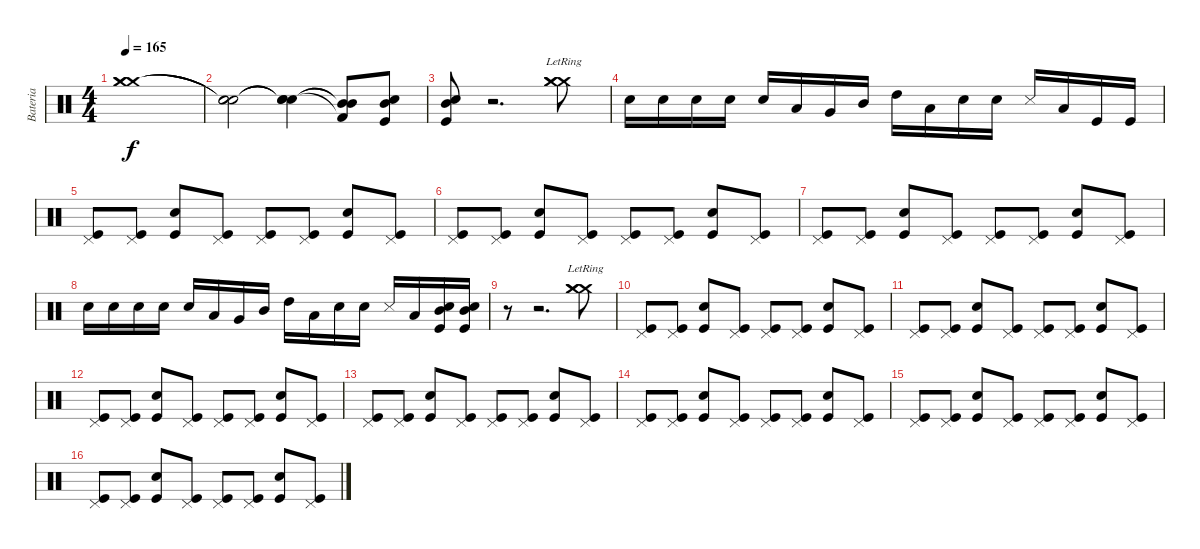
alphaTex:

\track ("Bateria" "Bateria") {instrument percussion}
\staff {score}
\articulation defaults
\ts (4 4)
\tempo 165
\clef neutral
\ks c
("Crash medium (hit)" "Crash medium (hit)" "Crash medium (hit)").1{dy f} |
("Snare (hit)"{t} "Snare (hit)"{t} "Snare (hit)"{t}).2 ("Snare (hit)"{t} "Snare (hit)"{t} "Snare (hit)"{t}).4 ("Mid Tom (hit)"{t} "Mid Tom (hit)"{t} "Kick (hit) 2"{t}).8 ("Mid Tom (hit)" "Metronome (bell)" "Kick (hit)").8 |
("Mid Tom (hit)" "Metronome (bell)" "Kick (hit)").8 r.2{d} ("Crash medium (hit)"{lr} "Crash medium (hit)"{lr} "Crash medium (hit)"{lr}).8 |
"Metronome (bell)".16 "Metronome (bell)".16 "Metronome (bell)".16 "Snare (hit) 2".16 "Snare (hit) 2".16 "Low Floor Tom (hit)".16 "Very Low Tom (hit)".16 "Mid Tom (hit)".16 "High Tom (hit)".16 "Low Tom (hit)".16 "Metronome (bell)".16 "Snare (hit) 2".16 "Metronome (hit)".16 "Low Floor Tom (hit)".16 "Kick (hit)".16 "Kick (hit)".16 |
("Kick (hit)" "Pedal Hi-Hat (hit)").8 ("Kick (hit)" "Pedal Hi-Hat (hit)").8 ("Kick (hit)" "Electric Snare (hit)").8 ("Kick (hit)" "Pedal Hi-Hat (hit)").8 ("Kick (hit)" "Pedal Hi-Hat (hit)").8 ("Kick (hit)" "Pedal Hi-Hat (hit)").8 ("Kick (hit)" "Electric Snare (hit)").8 ("Kick (hit)" "Pedal Hi-Hat (hit)").8 |
("Kick (hit)" "Pedal Hi-Hat (hit)").8 ("Kick (hit)" "Pedal Hi-Hat (hit)").8 ("Kick (hit)" "Electric Snare (hit)").8 ("Kick (hit)" "Pedal Hi-Hat (hit)").8 ("Kick (hit)" "Pedal Hi-Hat (hit)").8 ("Kick (hit)" "Pedal Hi-Hat (hit)").8 ("Kick (hit)" "Electric Snare (hit)").8 ("Kick (hit)" "Pedal Hi-Hat (hit)").8 |
("Kick (hit)" "Pedal Hi-Hat (hit)").8 ("Kick (hit)" "Pedal Hi-Hat (hit)").8 ("Kick (hit)" "Electric Snare (hit)").8 ("Kick (hit)" "Pedal Hi-Hat (hit)").8 ("Kick (hit)" "Pedal Hi-Hat (hit)").8 ("Kick (hit)" "Pedal Hi-Hat (hit)").8 ("Kick (hit)" "Electric Snare (hit)").8 ("Kick (hit)" "Pedal Hi-Hat (hit)").8 |
"Metronome (bell)".16 "Metronome (bell)".16 "Metronome (bell)".16 "Snare (hit) 2".16 "Snare (hit) 2".16 "Low Floor Tom (hit)".16 "Very Low Tom (hit)".16 "Mid Tom (hit)".16 "High Tom (hit)".16 "Low Tom (hit)".16 "Metronome (bell)".16 "Snare (hit) 2".16 "Metronome (hit)".16 "Low Floor Tom (hit)".16 ("Mid Tom (hit)" "Metronome (bell)" "Kick (hit)").16 ("Mid Tom (hit)" "Metronome (bell)" "Kick (hit)").16 |
r.8 r.2{d} ("Crash medium (hit)"{lr} "Crash medium (hit)"{lr} "Crash medium (hit)"{lr}).8 |
("Kick (hit)" "Pedal Hi-Hat (hit)").8 ("Kick (hit)" "Pedal Hi-Hat (hit)").8 ("Kick (hit)" "Electric Snare (hit)").8 ("Kick (hit)" "Pedal Hi-Hat (hit)").8 ("Kick (hit)" "Pedal Hi-Hat (hit)").8 ("Kick (hit)" "Pedal Hi-Hat (hit)").8 ("Kick (hit)" "Electric Snare (hit)").8 ("Kick (hit)" "Pedal Hi-Hat (hit)").8 |
("Kick (hit)" "Pedal Hi-Hat (hit)").8 ("Kick (hit)" "Pedal Hi-Hat (hit)").8 ("Kick (hit)" "Electric Snare (hit)").8 ("Kick (hit)" "Pedal Hi-Hat (hit)").8 ("Kick (hit)" "Pedal Hi-Hat (hit)").8 ("Kick (hit)" "Pedal Hi-Hat (hit)").8 ("Kick (hit)" "Electric Snare (hit)").8 ("Kick (hit)" "Pedal Hi-Hat (hit)").8 |
("Kick (hit)" "Pedal Hi-Hat (hit)").8 ("Kick (hit)" "Pedal Hi-Hat (hit)").8 ("Kick (hit)" "Electric Snare (hit)").8 ("Kick (hit)" "Pedal Hi-Hat (hit)").8 ("Kick (hit)" "Pedal Hi-Hat (hit)").8 ("Kick (hit)" "Pedal Hi-Hat (hit)").8 ("Kick (hit)" "Electric Snare (hit)").8 ("Kick (hit)" "Pedal Hi-Hat (hit)").8 |
("Kick (hit)" "Pedal Hi-Hat (hit)").8 ("Kick (hit)" "Pedal Hi-Hat (hit)").8 ("Kick (hit)" "Electric Snare (hit)").8 ("Kick (hit)" "Pedal Hi-Hat (hit)").8 ("Kick (hit)" "Pedal Hi-Hat (hit)").8 ("Kick (hit)" "Pedal Hi-Hat (hit)").8 ("Kick (hit)" "Electric Snare (hit)").8 ("Kick (hit)" "Pedal Hi-Hat (hit)").8 |
("Kick (hit)" "Pedal Hi-Hat (hit)").8 ("Kick (hit)" "Pedal Hi-Hat (hit)").8 ("Kick (hit)" "Electric Snare (hit)").8 ("Kick (hit)" "Pedal Hi-Hat (hit)").8 ("Kick (hit)" "Pedal Hi-Hat (hit)").8 ("Kick (hit)" "Pedal Hi-Hat (hit)").8 ("Kick (hit)" "Electric Snare (hit)").8 ("Kick (hit)" "Pedal Hi-Hat (hit)").8 |
("Kick (hit)" "Pedal Hi-Hat (hit)").8 ("Kick (hit)" "Pedal Hi-Hat (hit)").8 ("Kick (hit)" "Electric Snare (hit)").8 ("Kick (hit)" "Pedal Hi-Hat (hit)").8 ("Kick (hit)" "Pedal Hi-Hat (hit)").8 ("Kick (hit)" "Pedal Hi-Hat (hit)").8 ("Kick (hit)" "Electric Snare (hit)").8 ("Kick (hit)" "Pedal Hi-Hat (hit)").8 |
("Kick (hit)" "Pedal Hi-Hat (hit)").8 ("Kick (hit)" "Pedal Hi-Hat (hit)").8 ("Kick (hit)" "Electric Snare (hit)").8 ("Kick (hit)" "Pedal Hi-Hat (hit)").8 ("Kick (hit)" "Pedal Hi-Hat (hit)").8 ("Kick (hit)" "Pedal Hi-Hat (hit)").8 ("Kick (hit)" "Electric Snare (hit)").8 ("Kick (hit)" "Pedal Hi-Hat (hit)").8
